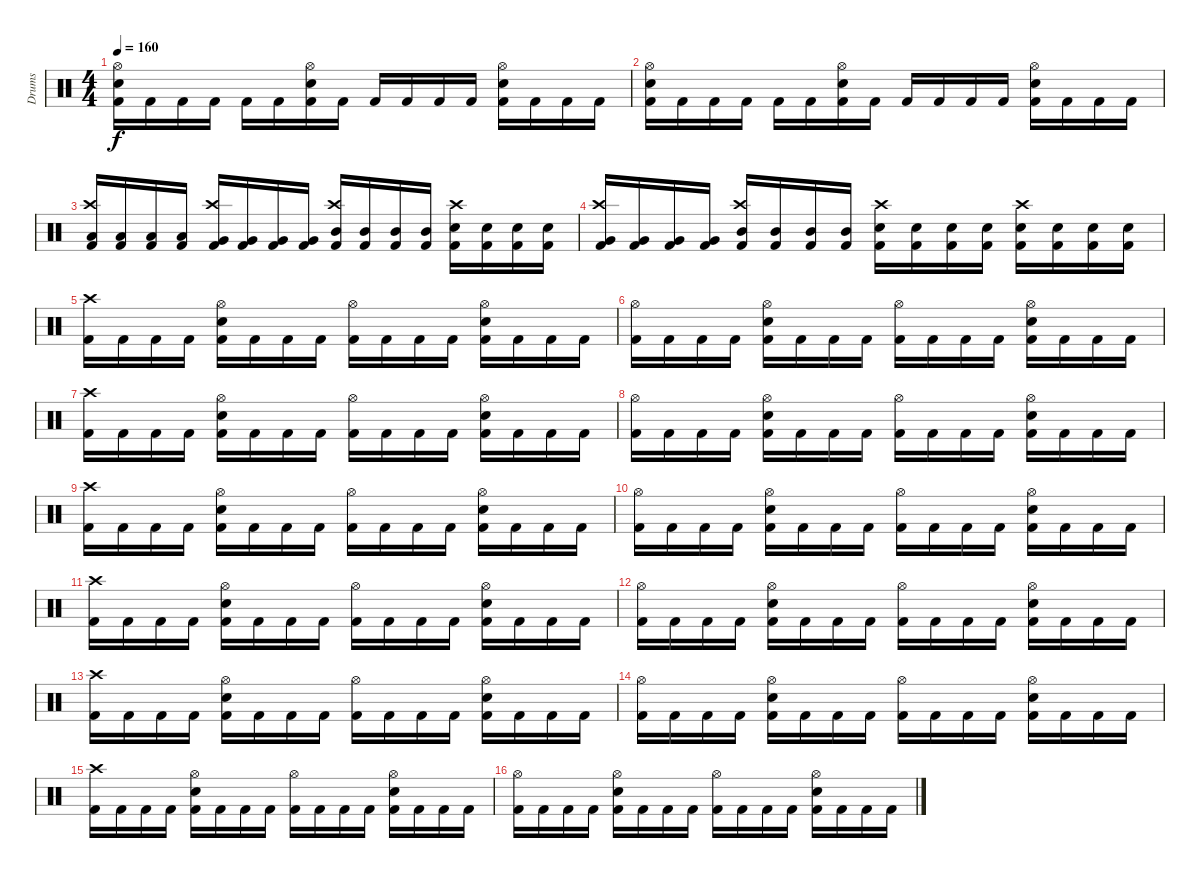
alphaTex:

\track ("Drums" "Drums") {instrument percussion}
\staff {score}
\articulation defaults
\ts (4 4)
\tempo 160
\clef neutral
\ks c
("Hi-Hat (open)" "Electric Snare (hit)" "Kick (hit) 2").16{dy f} "Kick (hit) 2".16 "Kick (hit) 2".16 "Kick (hit) 2".16 "Kick (hit) 2".16 "Kick (hit) 2".16 ("Hi-Hat (open)" "Electric Snare (hit)" "Kick (hit) 2").16 "Kick (hit) 2".16 "Kick (hit) 2".16 "Kick (hit) 2".16 "Kick (hit) 2".16 "Kick (hit) 2".16 ("Hi-Hat (open)" "Electric Snare (hit)" "Kick (hit) 2").16 "Kick (hit) 2".16 "Kick (hit) 2".16 "Kick (hit) 2".16 |
("Hi-Hat (open)" "Electric Snare (hit)" "Kick (hit) 2").16 "Kick (hit) 2".16 "Kick (hit) 2".16 "Kick (hit) 2".16 "Kick (hit) 2".16 "Kick (hit) 2".16 ("Hi-Hat (open)" "Electric Snare (hit)" "Kick (hit) 2").16 "Kick (hit) 2".16 "Kick (hit) 2".16 "Kick (hit) 2".16 "Kick (hit) 2".16 "Kick (hit) 2".16 ("Hi-Hat (open)" "Electric Snare (hit)" "Kick (hit) 2").16 "Kick (hit) 2".16 "Kick (hit) 2".16 "Kick (hit) 2".16 |
("Crash high (hit)" "Low Floor Tom (hit)" "Kick (hit) 2").16 ("Low Floor Tom (hit)" "Kick (hit) 2").16 ("Low Floor Tom (hit)" "Kick (hit) 2").16 ("Low Floor Tom (hit)" "Kick (hit) 2").16 ("Crash high (hit)" "Very Low Tom (hit)" "Kick (hit) 2").16 ("Very Low Tom (hit)" "Kick (hit) 2").16 ("Very Low Tom (hit)" "Kick (hit) 2").16 ("Very Low Tom (hit)" "Kick (hit) 2").16 ("Crash high (hit)" "Mid Tom (hit)" "Kick (hit) 2").16 ("Mid Tom (hit)" "Kick (hit) 2").16 ("Mid Tom (hit)" "Kick (hit) 2").16 ("Mid Tom (hit)" "Kick (hit) 2").16 ("Crash high (hit)" "Electric Snare (hit)" "Kick (hit) 2").16 ("Electric Snare (hit)" "Kick (hit) 2").16 ("Electric Snare (hit)" "Kick (hit) 2").16 ("Electric Snare (hit)" "Kick (hit) 2").16 |
("Crash high (hit)" "Very Low Tom (hit)" "Kick (hit) 2").16 ("Very Low Tom (hit)" "Kick (hit) 2").16 ("Very Low Tom (hit)" "Kick (hit) 2").16 ("Very Low Tom (hit)" "Kick (hit) 2").16 ("Crash high (hit)" "Mid Tom (hit)" "Kick (hit) 2").16 ("Mid Tom (hit)" "Kick (hit) 2").16 ("Mid Tom (hit)" "Kick (hit) 2").16 ("Mid Tom (hit)" "Kick (hit) 2").16 ("Crash high (hit)" "Electric Snare (hit)" "Kick (hit) 2").16 ("Electric Snare (hit)" "Kick (hit) 2").16 ("Electric Snare (hit)" "Kick (hit) 2").16 ("Electric Snare (hit)" "Kick (hit) 2").16 ("Crash high (hit)" "Electric Snare (hit)" "Kick (hit) 2").16 ("Electric Snare (hit)" "Kick (hit) 2").16 ("Electric Snare (hit)" "Kick (hit) 2").16 ("Electric Snare (hit)" "Kick (hit) 2").16 |
("Crash high (hit)" "Kick (hit) 2").16 "Kick (hit) 2".16 "Kick (hit) 2".16 "Kick (hit) 2".16 ("Hi-Hat (open)" "Electric Snare (hit)" "Kick (hit) 2").16 "Kick (hit) 2".16 "Kick (hit) 2".16 "Kick (hit) 2".16 ("Hi-Hat (open)" "Kick (hit) 2").16 "Kick (hit) 2".16 "Kick (hit) 2".16 "Kick (hit) 2".16 ("Hi-Hat (open)" "Electric Snare (hit)" "Kick (hit) 2").16 "Kick (hit) 2".16 "Kick (hit) 2".16 "Kick (hit) 2".16 |
("Hi-Hat (open)" "Kick (hit) 2").16 "Kick (hit) 2".16 "Kick (hit) 2".16 "Kick (hit) 2".16 ("Hi-Hat (open)" "Electric Snare (hit)" "Kick (hit) 2").16 "Kick (hit) 2".16 "Kick (hit) 2".16 "Kick (hit) 2".16 ("Hi-Hat (open)" "Kick (hit) 2").16 "Kick (hit) 2".16 "Kick (hit) 2".16 "Kick (hit) 2".16 ("Hi-Hat (open)" "Electric Snare (hit)" "Kick (hit) 2").16 "Kick (hit) 2".16 "Kick (hit) 2".16 "Kick (hit) 2".16 |
("Crash high (hit)" "Kick (hit) 2").16 "Kick (hit) 2".16 "Kick (hit) 2".16 "Kick (hit) 2".16 ("Hi-Hat (open)" "Electric Snare (hit)" "Kick (hit) 2").16 "Kick (hit) 2".16 "Kick (hit) 2".16 "Kick (hit) 2".16 ("Hi-Hat (open)" "Kick (hit) 2").16 "Kick (hit) 2".16 "Kick (hit) 2".16 "Kick (hit) 2".16 ("Hi-Hat (open)" "Electric Snare (hit)" "Kick (hit) 2").16 "Kick (hit) 2".16 "Kick (hit) 2".16 "Kick (hit) 2".16 |
("Hi-Hat (open)" "Kick (hit) 2").16 "Kick (hit) 2".16 "Kick (hit) 2".16 "Kick (hit) 2".16 ("Hi-Hat (open)" "Electric Snare (hit)" "Kick (hit) 2").16 "Kick (hit) 2".16 "Kick (hit) 2".16 "Kick (hit) 2".16 ("Hi-Hat (open)" "Kick (hit) 2").16 "Kick (hit) 2".16 "Kick (hit) 2".16 "Kick (hit) 2".16 ("Hi-Hat (open)" "Electric Snare (hit)" "Kick (hit) 2").16 "Kick (hit) 2".16 "Kick (hit) 2".16 "Kick (hit) 2".16 |
("Crash high (hit)" "Kick (hit) 2").16 "Kick (hit) 2".16 "Kick (hit) 2".16 "Kick (hit) 2".16 ("Hi-Hat (open)" "Electric Snare (hit)" "Kick (hit) 2").16 "Kick (hit) 2".16 "Kick (hit) 2".16 "Kick (hit) 2".16 ("Hi-Hat (open)" "Kick (hit) 2").16 "Kick (hit) 2".16 "Kick (hit) 2".16 "Kick (hit) 2".16 ("Hi-Hat (open)" "Electric Snare (hit)" "Kick (hit) 2").16 "Kick (hit) 2".16 "Kick (hit) 2".16 "Kick (hit) 2".16 |
("Hi-Hat (open)" "Kick (hit) 2").16 "Kick (hit) 2".16 "Kick (hit) 2".16 "Kick (hit) 2".16 ("Hi-Hat (open)" "Electric Snare (hit)" "Kick (hit) 2").16 "Kick (hit) 2".16 "Kick (hit) 2".16 "Kick (hit) 2".16 ("Hi-Hat (open)" "Kick (hit) 2").16 "Kick (hit) 2".16 "Kick (hit) 2".16 "Kick (hit) 2".16 ("Hi-Hat (open)" "Electric Snare (hit)" "Kick (hit) 2").16 "Kick (hit) 2".16 "Kick (hit) 2".16 "Kick (hit) 2".16 |
("Crash high (hit)" "Kick (hit) 2").16 "Kick (hit) 2".16 "Kick (hit) 2".16 "Kick (hit) 2".16 ("Hi-Hat (open)" "Electric Snare (hit)" "Kick (hit) 2").16 "Kick (hit) 2".16 "Kick (hit) 2".16 "Kick (hit) 2".16 ("Hi-Hat (open)" "Kick (hit) 2").16 "Kick (hit) 2".16 "Kick (hit) 2".16 "Kick (hit) 2".16 ("Hi-Hat (open)" "Electric Snare (hit)" "Kick (hit) 2").16 "Kick (hit) 2".16 "Kick (hit) 2".16 "Kick (hit) 2".16 |
("Hi-Hat (open)" "Kick (hit) 2").16 "Kick (hit) 2".16 "Kick (hit) 2".16 "Kick (hit) 2".16 ("Hi-Hat (open)" "Electric Snare (hit)" "Kick (hit) 2").16 "Kick (hit) 2".16 "Kick (hit) 2".16 "Kick (hit) 2".16 ("Hi-Hat (open)" "Kick (hit) 2").16 "Kick (hit) 2".16 "Kick (hit) 2".16 "Kick (hit) 2".16 ("Hi-Hat (open)" "Electric Snare (hit)" "Kick (hit) 2").16 "Kick (hit) 2".16 "Kick (hit) 2".16 "Kick (hit) 2".16 |
("Crash high (hit)" "Kick (hit) 2").16 "Kick (hit) 2".16 "Kick (hit) 2".16 "Kick (hit) 2".16 ("Hi-Hat (open)" "Electric Snare (hit)" "Kick (hit) 2").16 "Kick (hit) 2".16 "Kick (hit) 2".16 "Kick (hit) 2".16 ("Hi-Hat (open)" "Kick (hit) 2").16 "Kick (hit) 2".16 "Kick (hit) 2".16 "Kick (hit) 2".16 ("Hi-Hat (open)" "Electric Snare (hit)" "Kick (hit) 2").16 "Kick (hit) 2".16 "Kick (hit) 2".16 "Kick (hit) 2".16 |
("Hi-Hat (open)" "Kick (hit) 2").16 "Kick (hit) 2".16 "Kick (hit) 2".16 "Kick (hit) 2".16 ("Hi-Hat (open)" "Electric Snare (hit)" "Kick (hit) 2").16 "Kick (hit) 2".16 "Kick (hit) 2".16 "Kick (hit) 2".16 ("Hi-Hat (open)" "Kick (hit) 2").16 "Kick (hit) 2".16 "Kick (hit) 2".16 "Kick (hit) 2".16 ("Hi-Hat (open)" "Electric Snare (hit)" "Kick (hit) 2").16 "Kick (hit) 2".16 "Kick (hit) 2".16 "Kick (hit) 2".16 |
("Crash high (hit)" "Kick (hit) 2").16 "Kick (hit) 2".16 "Kick (hit) 2".16 "Kick (hit) 2".16 ("Hi-Hat (open)" "Electric Snare (hit)" "Kick (hit) 2").16 "Kick (hit) 2".16 "Kick (hit) 2".16 "Kick (hit) 2".16 ("Hi-Hat (open)" "Kick (hit) 2").16 "Kick (hit) 2".16 "Kick (hit) 2".16 "Kick (hit) 2".16 ("Hi-Hat (open)" "Electric Snare (hit)" "Kick (hit) 2").16 "Kick (hit) 2".16 "Kick (hit) 2".16 "Kick (hit) 2".16 |
("Hi-Hat (open)" "Kick (hit) 2").16 "Kick (hit) 2".16 "Kick (hit) 2".16 "Kick (hit) 2".16 ("Hi-Hat (open)" "Electric Snare (hit)" "Kick (hit) 2").16 "Kick (hit) 2".16 "Kick (hit) 2".16 "Kick (hit) 2".16 ("Hi-Hat (open)" "Kick (hit) 2").16 "Kick (hit) 2".16 "Kick (hit) 2".16 "Kick (hit) 2".16 ("Hi-Hat (open)" "Electric Snare (hit)" "Kick (hit) 2").16 "Kick (hit) 2".16 "Kick (hit) 2".16 "Kick (hit) 2".16
